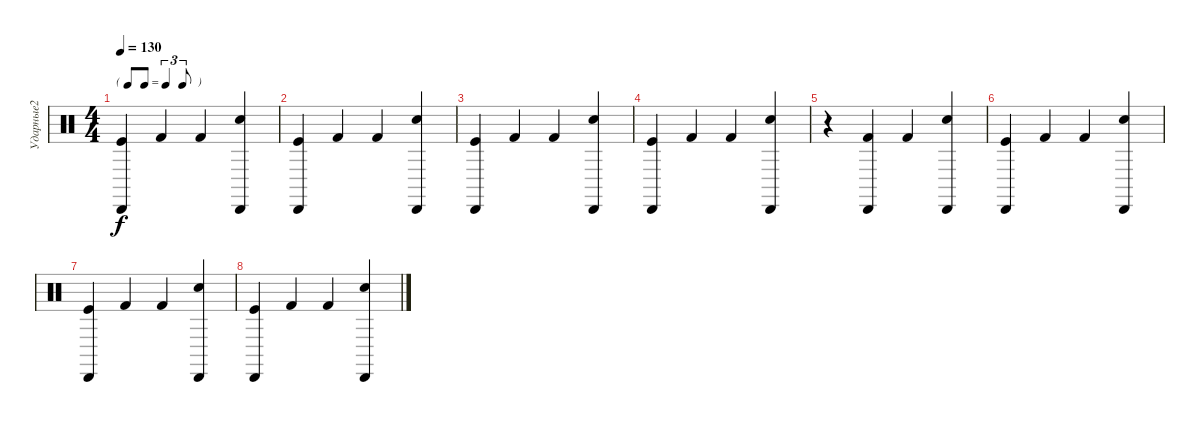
\track ("Ударные2" "Ударные2") {instrument percussion}
\staff {score}
\articulation defaults
\ts (4 4)
\tf triplet8th
\tempo 130
\clef neutral
\ks c
("Cabasa (hit)" "Kick (hit)").4{dy f} "Kick (hit) 2".4 "Kick (hit) 2".4 ("Cabasa (hit)" "Snare (hit) 2").4 |
("Cabasa (hit)" "Kick (hit)").4 "Kick (hit) 2".4 "Kick (hit) 2".4 ("Cabasa (hit)" "Snare (hit) 2").4 |
("Cabasa (hit)" "Kick (hit)").4 "Kick (hit) 2".4 "Kick (hit) 2".4 ("Cabasa (hit)" "Snare (hit) 2").4 |
("Cabasa (hit)" "Kick (hit)").4 "Kick (hit) 2".4 "Kick (hit) 2".4 ("Cabasa (hit)" "Snare (hit) 2").4 |
r.4 ("Cabasa (hit)" "Kick (hit) 2").4 "Kick (hit) 2".4 ("Cabasa (hit)" "Snare (hit) 2").4 |
("Cabasa (hit)" "Kick (hit)").4 "Kick (hit) 2".4 "Kick (hit) 2".4 ("Cabasa (hit)" "Snare (hit) 2").4 |
("Cabasa (hit)" "Kick (hit)").4 "Kick (hit) 2".4 "Kick (hit) 2".4 ("Cabasa (hit)" "Snare (hit) 2").4 |
("Cabasa (hit)" "Kick (hit)").4 "Kick (hit) 2".4 "Kick (hit) 2".4 ("Cabasa (hit)" "Snare (hit) 2").4
